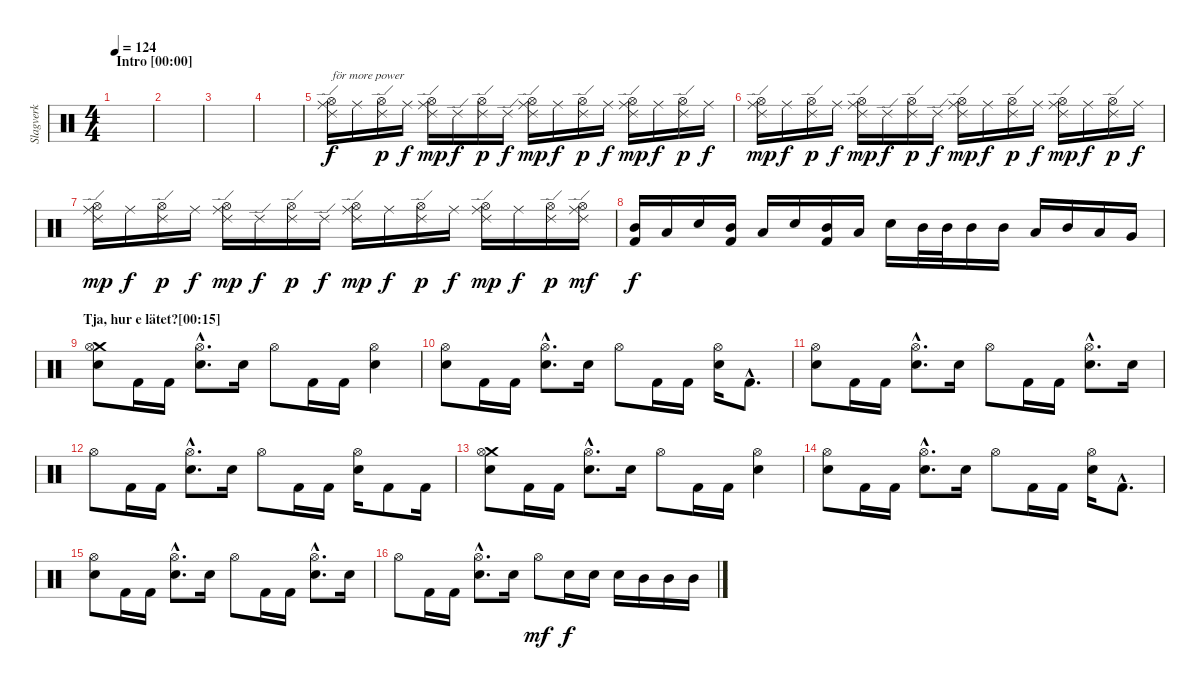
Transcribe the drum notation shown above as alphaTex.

\track ("Slagverk" "Slagverk") {instrument percussion}
\staff {score}
\articulation defaults
\ts (4 4)
\section ("" "Intro [00:00]")
\tempo 124
\clef neutral
\ks c
|
|
|
|
("Ride (edge) 2" "Hi-Hat (open)" "Ride (middle)").16{txt "för more power" volume 7} "Ride (middle)".16{dy f} ("Ride (edge) 2" "Hi-Hat (open)").16{dy p} "Ride (middle)".16{dy f} ("Ride (edge) 2" "Hi-Hat (open)" "Ride (middle)").16{dy mp} "Ride (edge) 2".16{dy f} ("Ride (edge) 2" "Hi-Hat (open)").16{dy p} "Ride (edge) 2".16{dy f} ("Ride (edge) 2" "Hi-Hat (open)" "Ride (middle)").16{dy mp} "Ride (middle)".16{dy f} ("Ride (edge) 2" "Hi-Hat (open)").16{dy p} "Ride (middle)".16{dy f} ("Ride (edge) 2" "Hi-Hat (open)" "Ride (middle)").16{dy mp} "Ride (middle)".16{dy f} ("Ride (edge) 2" "Hi-Hat (open)").16{dy p} "Ride (middle)".16{dy f} |
("Ride (edge) 2" "Hi-Hat (open)" "Ride (middle)").16{dy mp} "Ride (middle)".16{dy f} ("Ride (edge) 2" "Hi-Hat (open)").16{dy p} "Ride (middle)".16{dy f} ("Ride (edge) 2" "Hi-Hat (open)" "Ride (middle)").16{dy mp} "Ride (edge) 2".16{dy f} ("Ride (edge) 2" "Hi-Hat (open)").16{dy p} "Ride (edge) 2".16{dy f} ("Ride (edge) 2" "Hi-Hat (open)" "Ride (middle)").16{dy mp volume 13} "Ride (middle)".16{dy f} ("Ride (edge) 2" "Hi-Hat (open)").16{dy p} "Ride (middle)".16{dy f} ("Ride (edge) 2" "Hi-Hat (open)" "Ride (middle)").16{dy mp} "Ride (middle)".16{dy f} ("Ride (edge) 2" "Hi-Hat (open)").16{dy p} "Ride (middle)".16{dy f} |
("Ride (edge) 2" "Hi-Hat (open)" "Ride (middle)").16{dy mp} "Ride (middle)".16{dy f} ("Ride (edge) 2" "Hi-Hat (open)").16{dy p} "Ride (middle)".16{dy f} ("Ride (edge) 2" "Hi-Hat (open)" "Ride (middle)").16{dy mp} "Ride (edge) 2".16{dy f} ("Ride (edge) 2" "Hi-Hat (open)").16{dy p} "Ride (edge) 2".16{dy f} ("Ride (edge) 2" "Hi-Hat (open)" "Ride (middle)").16{dy mp} "Ride (middle)".16{dy f} ("Ride (edge) 2" "Hi-Hat (open)").16{dy p} "Ride (middle)".16{dy f} ("Ride (edge) 2" "Hi-Hat (open)" "Ride (middle)").16{dy mp} "Ride (middle)".16{dy f} ("Ride (edge) 2" "Hi-Hat (open)").16{dy p} ("Ride (edge) 2" "Hi-Hat (open)" "Ride (middle)").16{dy mf} |
("Mid Tom (hit)" "Kick (hit) 2").16{dy f} "Low Tom (hit)".16 "Electric Snare (hit)".16 ("Mid Tom (hit)" "Kick (hit) 2").16 "Low Tom (hit)".16 "Electric Snare (hit)".16 ("Mid Tom (hit)" "Kick (hit) 2").16 "Low Tom (hit)".16 "Electric Snare (hit)".16 "Mid Tom (hit)".32 "Mid Tom (hit)".32 "Mid Tom (hit)".16 "Mid Tom (hit)".16 "Low Tom (hit)".16 "Mid Tom (hit)".16 "Low Tom (hit)".16 "Very Low Tom (hit)".16 |
\section ("" "Tja, hur e lätet?[00:15]")
("Crash medium (hit)" "Hi-Hat (open)" "Electric Snare (hit)").8 "Kick (hit) 2".16 "Kick (hit) 2".16 ("Hi-Hat (open)"{hac} "Electric Snare (hit)"{hac}).8{d} "Electric Snare (hit)".16 "Hi-Hat (open)".8 "Kick (hit) 2".16 "Kick (hit) 2".16 ("Hi-Hat (open)" "Electric Snare (hit)").4 |
("Hi-Hat (open)" "Electric Snare (hit)").8 "Kick (hit) 2".16 "Kick (hit) 2".16 ("Hi-Hat (open)"{hac} "Electric Snare (hit)"{hac}).8{d} "Electric Snare (hit)".16 "Hi-Hat (open)".8 "Kick (hit) 2".16 "Kick (hit) 2".16 ("Hi-Hat (open)" "Electric Snare (hit)").16 "Kick (hit) 2"{hac}.8{d} |
("Hi-Hat (open)" "Electric Snare (hit)").8 "Kick (hit) 2".16 "Kick (hit) 2".16 ("Hi-Hat (open)"{hac} "Electric Snare (hit)"{hac}).8{d} "Electric Snare (hit)".16 "Hi-Hat (open)".8 "Kick (hit) 2".16 "Kick (hit) 2".16 ("Hi-Hat (open)"{hac} "Electric Snare (hit)"{hac}).8{d} "Electric Snare (hit)".16 |
"Hi-Hat (open)".8 "Kick (hit) 2".16 "Kick (hit) 2".16 ("Hi-Hat (open)"{hac} "Electric Snare (hit)"{hac}).8{d} "Electric Snare (hit)".16 "Hi-Hat (open)".8 "Kick (hit) 2".16 "Kick (hit) 2".16 ("Hi-Hat (open)" "Electric Snare (hit)").16 "Kick (hit) 2".8 "Kick (hit) 2".16 |
("Crash medium (hit)" "Hi-Hat (open)" "Electric Snare (hit)").8 "Kick (hit) 2".16 "Kick (hit) 2".16 ("Hi-Hat (open)"{hac} "Electric Snare (hit)"{hac}).8{d} "Electric Snare (hit)".16 "Hi-Hat (open)".8 "Kick (hit) 2".16 "Kick (hit) 2".16 ("Hi-Hat (open)" "Electric Snare (hit)").4 |
("Hi-Hat (open)" "Electric Snare (hit)").8 "Kick (hit) 2".16 "Kick (hit) 2".16 ("Hi-Hat (open)"{hac} "Electric Snare (hit)"{hac}).8{d} "Electric Snare (hit)".16 "Hi-Hat (open)".8 "Kick (hit) 2".16 "Kick (hit) 2".16 ("Hi-Hat (open)" "Electric Snare (hit)").16 "Kick (hit) 2"{hac}.8{d} |
("Hi-Hat (open)" "Electric Snare (hit)").8 "Kick (hit) 2".16 "Kick (hit) 2".16 ("Hi-Hat (open)"{hac} "Electric Snare (hit)"{hac}).8{d} "Electric Snare (hit)".16 "Hi-Hat (open)".8 "Kick (hit) 2".16 "Kick (hit) 2".16 ("Hi-Hat (open)"{hac} "Electric Snare (hit)"{hac}).8{d} "Electric Snare (hit)".16 |
"Hi-Hat (open)".8 "Kick (hit) 2".16 "Kick (hit) 2".16 ("Hi-Hat (open)"{hac} "Electric Snare (hit)"{hac}).8{d} "Electric Snare (hit)".16 "Hi-Hat (open)".8{dy mf} "Electric Snare (hit)".16{dy f} "Electric Snare (hit)".16 "Electric Snare (hit)".16 "Mid Tom (hit)".16 "Mid Tom (hit)".16 "Mid Tom (hit)".16
